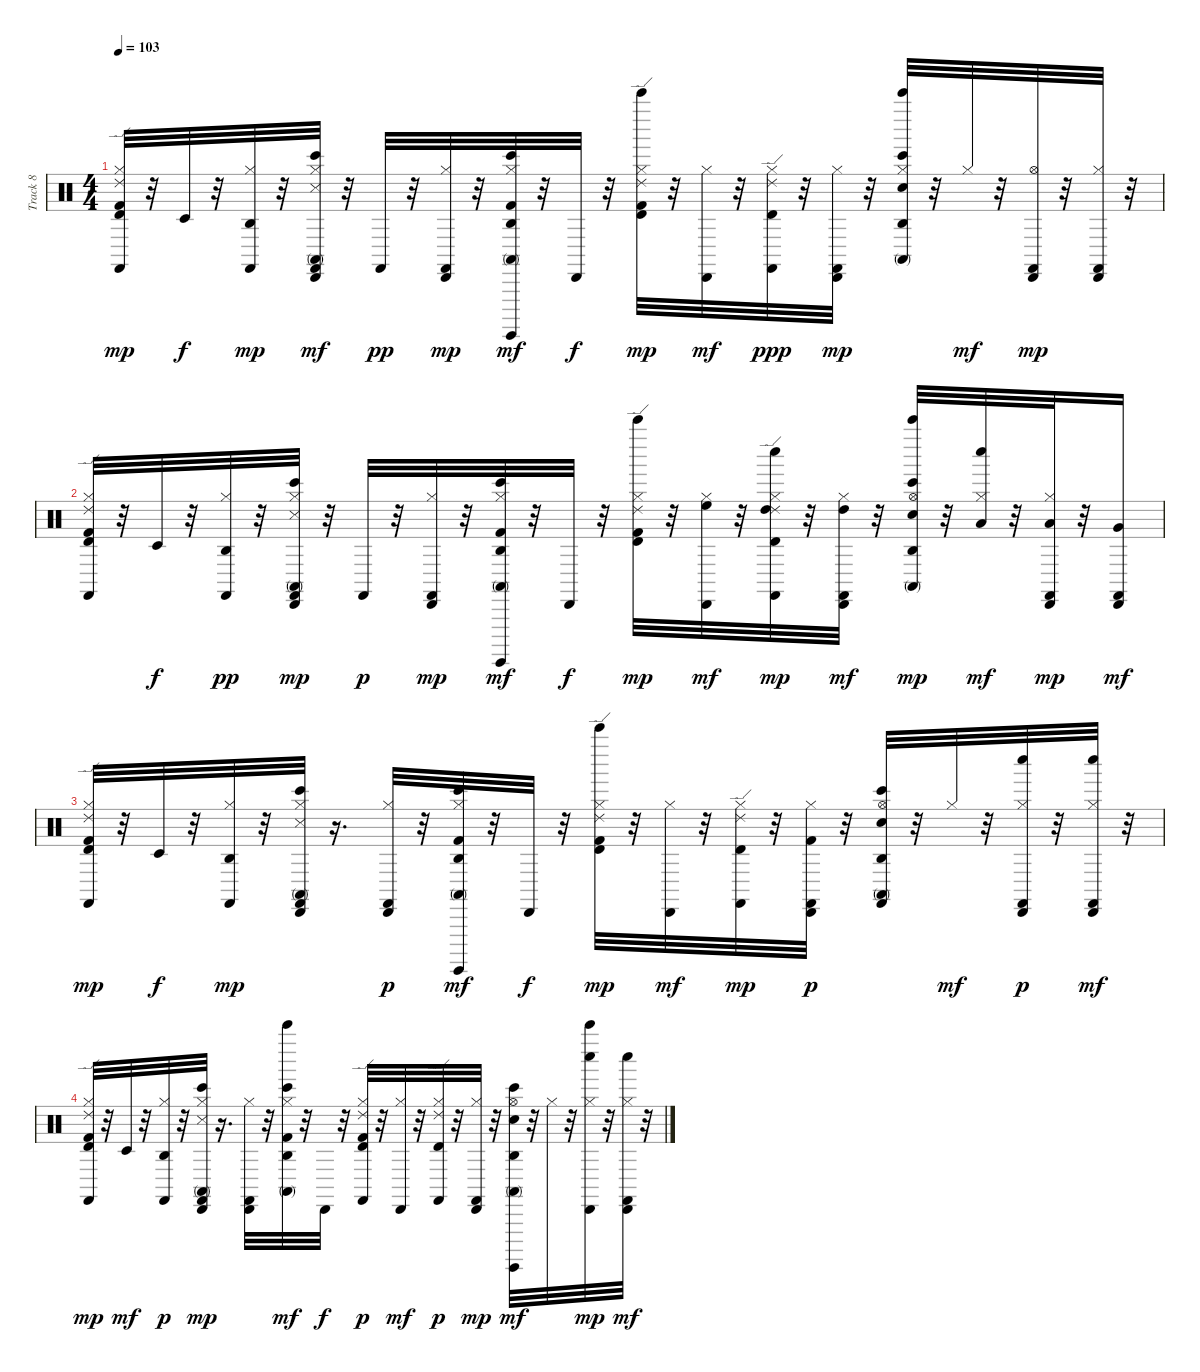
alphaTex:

\track ("Track 8" "Track 8") {instrument percussion}
\staff {score}
\articulation defaults
\ts (4 4)
\tempo 103
\clef neutral
\ks c
("Ride (edge) 2" "Timbale high (hit)" "Kick (hit) 2" "Hi-Hat (closed)" "Castanets (hit)").32{dy mp} r.32 "Timbale low (hit)".32{dy f} r.32 ("Agogo high (hit)" "Hi-Hat (closed)" "Castanets (hit)").32{dy mp} r.32 ("Bongo High (hit)" "Conga high (mute)" "Cabasa (hit)" "Snare (side stick) 3" "Castanets (hit)" "Hi-Hat (closed)").32{dy mf} r.32 "Castanets (hit)".32{dy pp} r.32 ("Cabasa (hit)" "Hi-Hat (closed)" "Castanets (hit)").32{dy mp} r.32 ("Bongo High (hit)" "Conga high (mute)" "Agogo high (hit)" "Kick (hit) 2" "Hi-Hat (closed)" "Surdo (hit)").32{dy mf} r.32 "Cabasa (hit)".32{dy f} r.32 ("Ride (edge) 2" "Timbale high (hit)" "Kick (hit) 2" "Hi-Hat (closed)" "Bell Tree (hit)").32{dy mp} r.32 ("Cabasa (hit)" "Hi-Hat (closed)").32{dy mf} r.32 ("Ride (edge) 2" "Timbale high (hit)" "Hi-Hat (closed)" "Castanets (hit)").32{dy ppp} r.32 ("Cabasa (hit)" "Hi-Hat (closed)" "Castanets (hit)").32{dy mp} r.32 ("Bongo High (hit)" "Conga high (mute)" "Agogo high (hit)" "Electric Snare (hit)" "Hi-Hat (closed)" "Bell Tree (hit)").32 r.32 "Hi-Hat (closed)".32{dy mf} r.32 ("Cabasa (hit)" "Hi-Hat (open)" "Castanets (hit)").32{dy mp} r.32 ("Cabasa (hit)" "Hi-Hat (closed)" "Castanets (hit)").32 r.32 |
("Ride (edge) 2" "Timbale high (hit)" "Kick (hit) 2" "Hi-Hat (closed)" "Castanets (hit)").32 r.32 "Timbale low (hit)".32{dy f} r.32 ("Agogo high (hit)" "Hi-Hat (closed)" "Castanets (hit)").32{dy pp} r.32 ("Bongo High (hit)" "Conga high (mute)" "Cabasa (hit)" "Snare (side stick) 3" "Hi-Hat (closed)" "Castanets (hit)").32{dy mp} r.32 "Castanets (hit)".32{dy p} r.32 ("Cabasa (hit)" "Hi-Hat (closed)" "Castanets (hit)").32{dy mp} r.32 ("Bongo High (hit)" "Conga high (mute)" "Agogo high (hit)" "Kick (hit) 2" "Hi-Hat (closed)" "Surdo (hit)").32{dy mf} r.32 "Cabasa (hit)".32{dy f} r.32 ("Ride (edge) 2" "Timbale high (hit)" "Kick (hit) 2" "Hi-Hat (closed)" "Bell Tree (hit)").32{dy mp} r.32 ("Cabasa (hit)" "Hi-Hat (closed)" "High Floor Tom (hit)").32{dy mf} r.32 ("Ride (edge) 2" "Timbale high (hit)" "Hi-Hat (closed)" "Castanets (hit)" "Whistle low (hit)" "High Tom (hit)").32{dy mp} r.32 ("Cabasa (hit)" "Hi-Hat (closed)" "Castanets (hit)" "High Tom (hit)").32{dy mf} r.32 ("Bongo High (hit)" "Conga high (mute)" "Agogo high (hit)" "Hi-Hat (open)" "Electric Snare (hit)" "Bell Tree (hit)").32{dy mp} r.32 ("Hi-Hat (closed)" "Whistle low (hit)" "Low Tom (hit)").32{dy mf} r.32 ("Cabasa (hit)" "Hi-Hat (closed)" "Castanets (hit)" "Low Tom (hit)").32{dy mp} r.32 ("Cabasa (hit)" "Castanets (hit)" "Very Low Tom (hit)").16{dy mf} |
("Ride (edge) 2" "Timbale high (hit)" "Kick (hit) 2" "Hi-Hat (closed)" "Castanets (hit)").32{dy mp} r.32 "Timbale low (hit)".32{dy f} r.32 ("Agogo high (hit)" "Hi-Hat (closed)" "Castanets (hit)").32{dy mp} r.32 ("Bongo High (hit)" "Conga high (mute)" "Cabasa (hit)" "Snare (side stick) 3" "Hi-Hat (closed)" "Castanets (hit)").32 r.16{d} ("Cabasa (hit)" "Hi-Hat (closed)" "Castanets (hit)").32{dy p} r.32 ("Bongo High (hit)" "Conga high (mute)" "Agogo high (hit)" "Kick (hit) 2" "Hi-Hat (closed)" "Surdo (hit)").32{dy mf} r.32 "Cabasa (hit)".32{dy f} r.32 ("Ride (edge) 2" "Timbale high (hit)" "Kick (hit) 2" "Hi-Hat (closed)" "Bell Tree (hit)").32{dy mp} r.32 ("Cabasa (hit)" "Hi-Hat (closed)").32{dy mf} r.32 ("Ride (edge) 2" "Timbale high (hit)" "Hi-Hat (closed)" "Castanets (hit)").32{dy mp} r.32 ("Cabasa (hit)" "Kick (hit) 2" "Hi-Hat (closed)" "Castanets (hit)").32{dy p} r.32 ("Bongo High (hit)" "Conga high (mute)" "Agogo high (hit)" "Electric Snare (hit)" "Hi-Hat (open)" "Castanets (hit)").32 r.32 "Hi-Hat (closed)".32{dy mf} r.32 ("Cabasa (hit)" "Hi-Hat (closed)" "Castanets (hit)" "Whistle low (hit)").32{dy p} r.32 ("Cabasa (hit)" "Hi-Hat (closed)" "Castanets (hit)" "Whistle low (hit)").32{dy mf} r.32 |
("Ride (edge) 2" "Timbale high (hit)" "Kick (hit) 2" "Hi-Hat (closed)" "Castanets (hit)").32{dy mp} r.32 "Timbale low (hit)".32{dy mf} r.32 ("Agogo high (hit)" "Hi-Hat (closed)" "Castanets (hit)").32{dy p} r.32 ("Bongo High (hit)" "Conga high (mute)" "Cabasa (hit)" "Snare (side stick) 3" "Hi-Hat (closed)" "Castanets (hit)").32{dy mp} r.16{d} ("Cabasa (hit)" "Hi-Hat (closed)" "Castanets (hit)").32 r.32 ("Bongo High (hit)" "Conga high (mute)" "Agogo high (hit)" "Kick (hit) 2" "Hi-Hat (closed)" "Bell Tree (hit)").32{dy mf} r.32 "Cabasa (hit)".32{dy f} r.32 ("Ride (edge) 2" "Timbale high (hit)" "Kick (hit) 2" "Hi-Hat (closed)" "Castanets (hit)").32{dy p} r.32 ("Cabasa (hit)" "Hi-Hat (closed)").32{dy mf} r.32 ("Ride (edge) 2" "Timbale high (hit)" "Hi-Hat (closed)" "Castanets (hit)").32{dy p} r.32 ("Cabasa (hit)" "Hi-Hat (closed)" "Castanets (hit)").32{dy mp} r.32 ("Bongo High (hit)" "Conga high (mute)" "Agogo high (hit)" "Hi-Hat (open)" "Electric Snare (hit)" "Surdo (hit)").32{dy mf} r.32 "Hi-Hat (closed)".32 r.32 ("Cabasa (hit)" "Hi-Hat (closed)" "Bell Tree (hit)" "Whistle low (hit)").32{dy mp} r.32 ("Cabasa (hit)" "Hi-Hat (closed)" "Castanets (hit)" "Whistle low (hit)").32{dy mf} r.32
